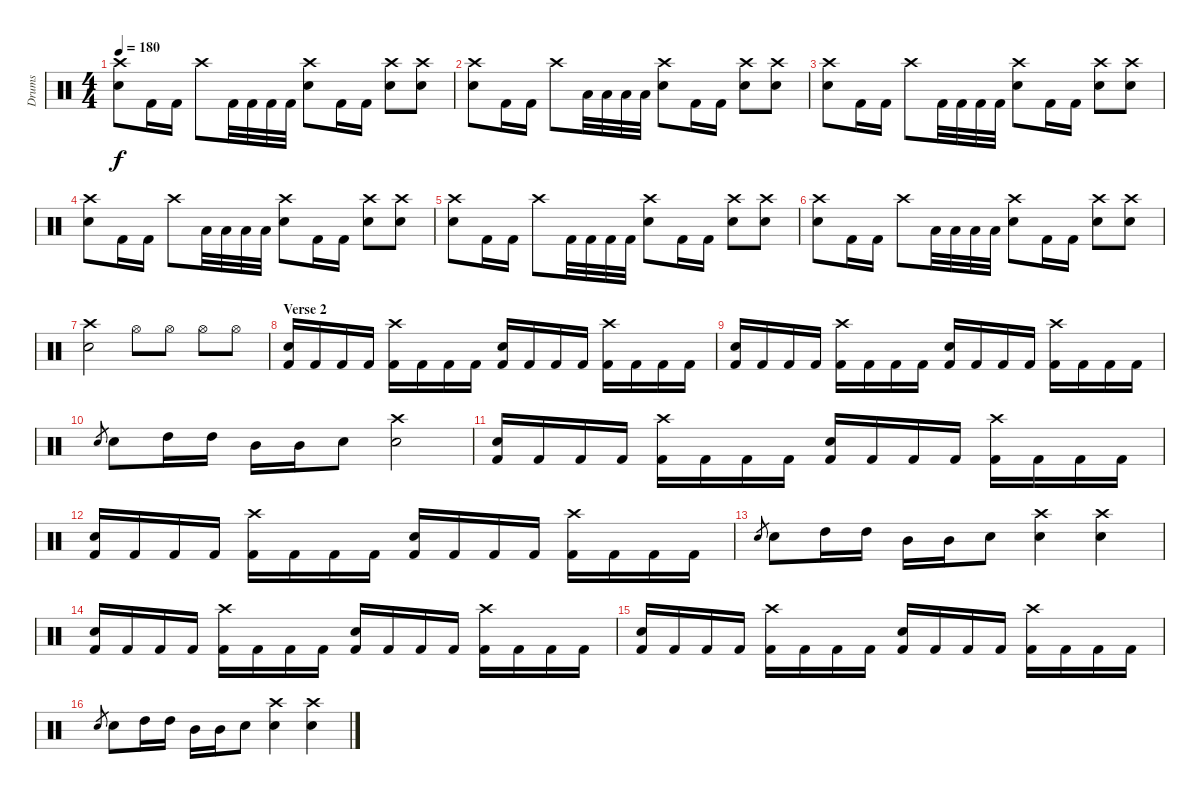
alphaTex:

\track ("Drums" "Drums") {instrument percussion}
\staff {score}
\articulation defaults
\ts (4 4)
\tempo 180
\clef neutral
\ks c
("Crash high (hit)" "Electric Snare (hit)").8{dy f} "Kick (hit) 2".16 "Kick (hit) 2".16 "Crash high (hit)".8 "Kick (hit) 2".32 "Kick (hit) 2".32 "Kick (hit) 2".32 "Kick (hit) 2".32 ("Crash high (hit)" "Electric Snare (hit)").8 "Kick (hit) 2".16 "Kick (hit) 2".16 ("Crash high (hit)" "Electric Snare (hit)").8 ("Crash high (hit)" "Electric Snare (hit)").8 |
("Crash high (hit)" "Electric Snare (hit)").8 "Kick (hit) 2".16 "Kick (hit) 2".16 "Crash high (hit)".8 "Low Tom (hit)".32 "Low Tom (hit)".32 "Low Tom (hit)".32 "Low Tom (hit)".32 ("Crash high (hit)" "Electric Snare (hit)").8 "Kick (hit) 2".16 "Kick (hit) 2".16 ("Crash high (hit)" "Electric Snare (hit)").8 ("Crash high (hit)" "Electric Snare (hit)").8 |
("Crash high (hit)" "Electric Snare (hit)").8 "Kick (hit) 2".16 "Kick (hit) 2".16 "Crash high (hit)".8 "Kick (hit) 2".32 "Kick (hit) 2".32 "Kick (hit) 2".32 "Kick (hit) 2".32 ("Crash high (hit)" "Electric Snare (hit)").8 "Kick (hit) 2".16 "Kick (hit) 2".16 ("Crash high (hit)" "Electric Snare (hit)").8 ("Crash high (hit)" "Electric Snare (hit)").8 |
("Crash high (hit)" "Electric Snare (hit)").8 "Kick (hit) 2".16 "Kick (hit) 2".16 "Crash high (hit)".8 "Low Tom (hit)".32 "Low Tom (hit)".32 "Low Tom (hit)".32 "Low Tom (hit)".32 ("Crash high (hit)" "Electric Snare (hit)").8 "Kick (hit) 2".16 "Kick (hit) 2".16 ("Crash high (hit)" "Electric Snare (hit)").8 ("Crash high (hit)" "Electric Snare (hit)").8 |
("Crash high (hit)" "Electric Snare (hit)").8 "Kick (hit) 2".16 "Kick (hit) 2".16 "Crash high (hit)".8 "Kick (hit) 2".32 "Kick (hit) 2".32 "Kick (hit) 2".32 "Kick (hit) 2".32 ("Crash high (hit)" "Electric Snare (hit)").8 "Kick (hit) 2".16 "Kick (hit) 2".16 ("Crash high (hit)" "Electric Snare (hit)").8 ("Crash high (hit)" "Electric Snare (hit)").8 |
("Crash high (hit)" "Electric Snare (hit)").8 "Kick (hit) 2".16 "Kick (hit) 2".16 "Crash high (hit)".8 "Low Tom (hit)".32 "Low Tom (hit)".32 "Low Tom (hit)".32 "Low Tom (hit)".32 ("Crash high (hit)" "Electric Snare (hit)").8 "Kick (hit) 2".16 "Kick (hit) 2".16 ("Crash high (hit)" "Electric Snare (hit)").8 ("Crash high (hit)" "Electric Snare (hit)").8 |
("Electric Snare (hit)" "Crash high (hit)").2 "Hi-Hat (open)".8 "Hi-Hat (open)".8 "Hi-Hat (open)".8 "Hi-Hat (open)".8 |
\section ("" "Verse 2")
("Kick (hit) 2" "Electric Snare (hit)").16 "Kick (hit) 2".16 "Kick (hit) 2".16 "Kick (hit) 2".16 ("Kick (hit) 2" "Crash high (hit)").16 "Kick (hit) 2".16 "Kick (hit) 2".16 "Kick (hit) 2".16 ("Kick (hit) 2" "Electric Snare (hit)").16 "Kick (hit) 2".16 "Kick (hit) 2".16 "Kick (hit) 2".16 ("Kick (hit) 2" "Crash high (hit)").16 "Kick (hit) 2".16 "Kick (hit) 2".16 "Kick (hit) 2".16 |
("Kick (hit) 2" "Electric Snare (hit)").16 "Kick (hit) 2".16 "Kick (hit) 2".16 "Kick (hit) 2".16 ("Kick (hit) 2" "Crash high (hit)").16 "Kick (hit) 2".16 "Kick (hit) 2".16 "Kick (hit) 2".16 ("Kick (hit) 2" "Electric Snare (hit)").16 "Kick (hit) 2".16 "Kick (hit) 2".16 "Kick (hit) 2".16 ("Kick (hit) 2" "Crash high (hit)").16 "Kick (hit) 2".16 "Kick (hit) 2".16 "Kick (hit) 2".16 |
"Electric Snare (hit)".8{gr} "Electric Snare (hit)".8 "High Tom (hit)".16 "High Tom (hit)".16 "Mid Tom (hit)".16 "Mid Tom (hit)".16 "Electric Snare (hit)".8 ("Crash high (hit)" "Electric Snare (hit)").2 |
("Kick (hit) 2" "Electric Snare (hit)").16 "Kick (hit) 2".16 "Kick (hit) 2".16 "Kick (hit) 2".16 ("Kick (hit) 2" "Crash high (hit)").16 "Kick (hit) 2".16 "Kick (hit) 2".16 "Kick (hit) 2".16 ("Kick (hit) 2" "Electric Snare (hit)").16 "Kick (hit) 2".16 "Kick (hit) 2".16 "Kick (hit) 2".16 ("Kick (hit) 2" "Crash high (hit)").16 "Kick (hit) 2".16 "Kick (hit) 2".16 "Kick (hit) 2".16 |
("Kick (hit) 2" "Electric Snare (hit)").16 "Kick (hit) 2".16 "Kick (hit) 2".16 "Kick (hit) 2".16 ("Kick (hit) 2" "Crash high (hit)").16 "Kick (hit) 2".16 "Kick (hit) 2".16 "Kick (hit) 2".16 ("Kick (hit) 2" "Electric Snare (hit)").16 "Kick (hit) 2".16 "Kick (hit) 2".16 "Kick (hit) 2".16 ("Kick (hit) 2" "Crash high (hit)").16 "Kick (hit) 2".16 "Kick (hit) 2".16 "Kick (hit) 2".16 |
"Electric Snare (hit)".8{gr} "Electric Snare (hit)".8 "High Tom (hit)".16 "High Tom (hit)".16 "Mid Tom (hit)".16 "Mid Tom (hit)".16 "Electric Snare (hit)".8 ("Crash high (hit)" "Electric Snare (hit)").4 ("Crash high (hit)" "Electric Snare (hit)").4 |
("Kick (hit) 2" "Electric Snare (hit)").16 "Kick (hit) 2".16 "Kick (hit) 2".16 "Kick (hit) 2".16 ("Kick (hit) 2" "Crash high (hit)").16 "Kick (hit) 2".16 "Kick (hit) 2".16 "Kick (hit) 2".16 ("Kick (hit) 2" "Electric Snare (hit)").16 "Kick (hit) 2".16 "Kick (hit) 2".16 "Kick (hit) 2".16 ("Kick (hit) 2" "Crash high (hit)").16 "Kick (hit) 2".16 "Kick (hit) 2".16 "Kick (hit) 2".16 |
("Kick (hit) 2" "Electric Snare (hit)").16 "Kick (hit) 2".16 "Kick (hit) 2".16 "Kick (hit) 2".16 ("Kick (hit) 2" "Crash high (hit)").16 "Kick (hit) 2".16 "Kick (hit) 2".16 "Kick (hit) 2".16 ("Kick (hit) 2" "Electric Snare (hit)").16 "Kick (hit) 2".16 "Kick (hit) 2".16 "Kick (hit) 2".16 ("Kick (hit) 2" "Crash high (hit)").16 "Kick (hit) 2".16 "Kick (hit) 2".16 "Kick (hit) 2".16 |
"Electric Snare (hit)".8{gr} "Electric Snare (hit)".8 "High Tom (hit)".16 "High Tom (hit)".16 "Mid Tom (hit)".16 "Mid Tom (hit)".16 "Electric Snare (hit)".8 ("Crash high (hit)" "Electric Snare (hit)").4 ("Crash high (hit)" "Electric Snare (hit)").4
